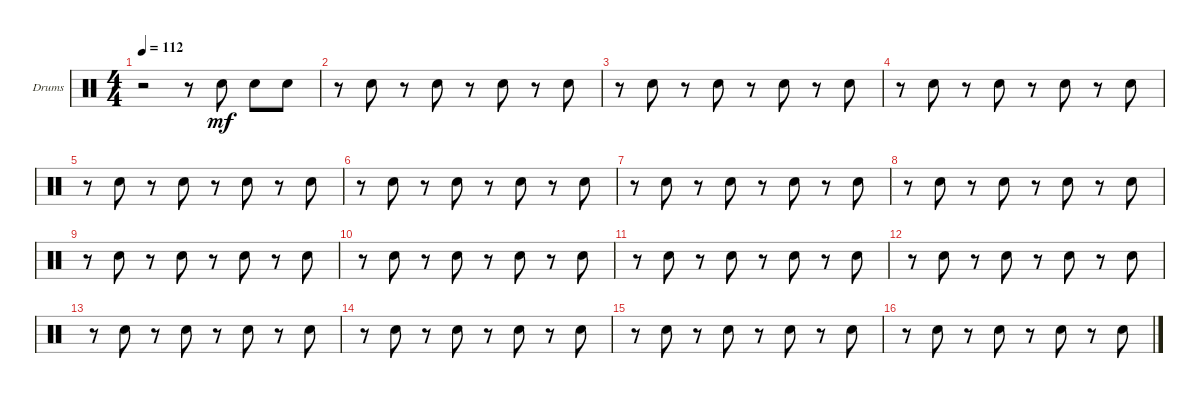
\defaultSystemsLayout 4
\bracketExtendMode groupsimilarinstruments
\firstSystemTrackNameOrientation horizontal
\otherSystemsTrackNameOrientation horizontal
\track ("Drumkit" "Drums") {instrument percussion}
\staff {score}
\articulation defaults
\ts (4 4)
\tempo 112
\clef neutral
\ks c
r.2{dy mf} r.8 "Snare (hit) 2".8 "Snare (hit) 2".8 "Snare (hit) 2".8 |
\scale
0.472222 r.8 "Snare (hit) 2".8 r.8 "Snare (hit) 2".8 r.8 "Snare (hit) 2".8 r.8 "Snare (hit) 2".8 |
\scale
0.263889 r.8 "Snare (hit) 2".8 r.8 "Snare (hit) 2".8 r.8 "Snare (hit) 2".8 r.8 "Snare (hit) 2".8 |
\scale
0.263889 r.8 "Snare (hit) 2".8 r.8 "Snare (hit) 2".8 r.8 "Snare (hit) 2".8 r.8 "Snare (hit) 2".8 |
\scale
0.333333 r.8 "Snare (hit) 2".8 r.8 "Snare (hit) 2".8 r.8 "Snare (hit) 2".8 r.8 "Snare (hit) 2".8 |
\scale
0.333333 r.8 "Snare (hit) 2".8 r.8 "Snare (hit) 2".8 r.8 "Snare (hit) 2".8 r.8 "Snare (hit) 2".8 |
\scale
0.333333 r.8 "Snare (hit) 2".8 r.8 "Snare (hit) 2".8 r.8 "Snare (hit) 2".8 r.8 "Snare (hit) 2".8 |
\scale
0.333333 r.8 "Snare (hit) 2".8 r.8 "Snare (hit) 2".8 r.8 "Snare (hit) 2".8 r.8 "Snare (hit) 2".8 |
\scale
0.333333 r.8 "Snare (hit) 2".8 r.8 "Snare (hit) 2".8 r.8 "Snare (hit) 2".8 r.8 "Snare (hit) 2".8 |
\scale
0.333333 r.8 "Snare (hit) 2".8 r.8 "Snare (hit) 2".8 r.8 "Snare (hit) 2".8 r.8 "Snare (hit) 2".8 |
\scale
0.333333 r.8 "Snare (hit) 2".8 r.8 "Snare (hit) 2".8 r.8 "Snare (hit) 2".8 r.8 "Snare (hit) 2".8 |
\scale
0.333333 r.8 "Snare (hit) 2".8 r.8 "Snare (hit) 2".8 r.8 "Snare (hit) 2".8 r.8 "Snare (hit) 2".8 |
\scale
0.333333 r.8 "Snare (hit) 2".8 r.8 "Snare (hit) 2".8 r.8 "Snare (hit) 2".8 r.8 "Snare (hit) 2".8 |
\scale
0.333333 r.8 "Snare (hit) 2".8 r.8 "Snare (hit) 2".8 r.8 "Snare (hit) 2".8 r.8 "Snare (hit) 2".8 |
\scale
0.333333 r.8 "Snare (hit) 2".8 r.8 "Snare (hit) 2".8 r.8 "Snare (hit) 2".8 r.8 "Snare (hit) 2".8 |
r.8 "Snare (hit) 2".8 r.8 "Snare (hit) 2".8 r.8 "Snare (hit) 2".8 r.8 "Snare (hit) 2".8
